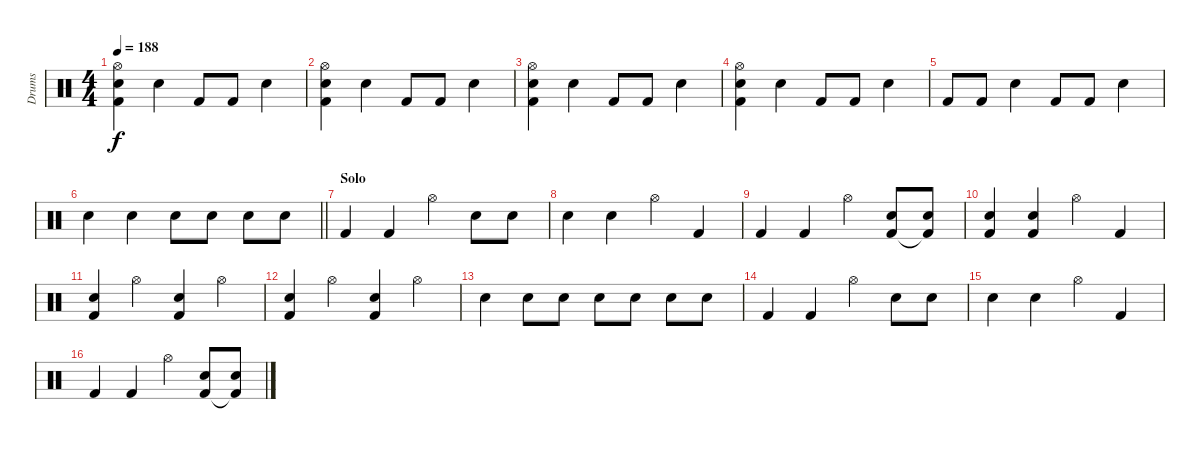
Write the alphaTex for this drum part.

\track ("Drums" "Drums") {instrument percussion}
\staff {score}
\articulation defaults
\ts (4 4)
\tempo 188
\clef neutral
\ks c
("Hi-Hat (open)" "Electric Snare (hit)" "Kick (hit) 2").4{dy f} "Electric Snare (hit)".4 "Kick (hit) 2".8 "Kick (hit) 2".8 "Electric Snare (hit)".4 |
("Hi-Hat (open)" "Electric Snare (hit)" "Kick (hit) 2").4 "Electric Snare (hit)".4 "Kick (hit) 2".8 "Kick (hit) 2".8 "Electric Snare (hit)".4 |
("Hi-Hat (open)" "Electric Snare (hit)" "Kick (hit) 2").4 "Electric Snare (hit)".4 "Kick (hit) 2".8 "Kick (hit) 2".8 "Electric Snare (hit)".4 |
("Hi-Hat (open)" "Electric Snare (hit)" "Kick (hit) 2").4 "Electric Snare (hit)".4 "Kick (hit) 2".8 "Kick (hit) 2".8 "Electric Snare (hit)".4 |
"Kick (hit) 2".8 "Kick (hit) 2".8 "Electric Snare (hit)".4 "Kick (hit) 2".8 "Kick (hit) 2".8 "Electric Snare (hit)".4 |
\barLineRight lightlight "Electric Snare (hit)".4 "Electric Snare (hit)".4 "Electric Snare (hit)".8 "Electric Snare (hit)".8 "Electric Snare (hit)".8 "Electric Snare (hit)".8
|
\section ("" "Solo")
"Kick (hit) 2".4 "Kick (hit) 2".4 "Hi-Hat (open)".4 "Electric Snare (hit)".8 "Electric Snare (hit)".8 |
"Electric Snare (hit)".4 "Electric Snare (hit)".4 "Hi-Hat (open)".4 "Kick (hit) 2".4 |
"Kick (hit) 2".4 "Kick (hit) 2".4 "Hi-Hat (open)".4 ("Electric Snare (hit)" "Kick (hit) 2").8 ("Electric Snare (hit)" "Kick (hit) 2"{t}).8 |
("Electric Snare (hit)" "Kick (hit) 2").4 ("Electric Snare (hit)" "Kick (hit) 2").4 "Hi-Hat (open)".4 "Kick (hit) 2".4 |
("Electric Snare (hit)" "Kick (hit) 2").4 "Hi-Hat (open)".4 ("Electric Snare (hit)" "Kick (hit) 2").4 "Hi-Hat (open)".4 |
("Electric Snare (hit)" "Kick (hit) 2").4 "Hi-Hat (open)".4 ("Electric Snare (hit)" "Kick (hit) 2").4 "Hi-Hat (open)".4 |
"Electric Snare (hit)".4 "Electric Snare (hit)".8 "Electric Snare (hit)".8 "Electric Snare (hit)".8 "Electric Snare (hit)".8 "Electric Snare (hit)".8 "Electric Snare (hit)".8 |
"Kick (hit) 2".4 "Kick (hit) 2".4 "Hi-Hat (open)".4 "Electric Snare (hit)".8 "Electric Snare (hit)".8 |
"Electric Snare (hit)".4 "Electric Snare (hit)".4 "Hi-Hat (open)".4 "Kick (hit) 2".4 |
"Kick (hit) 2".4 "Kick (hit) 2".4 "Hi-Hat (open)".4 ("Electric Snare (hit)" "Kick (hit) 2").8 ("Electric Snare (hit)" "Kick (hit) 2"{t}).8
